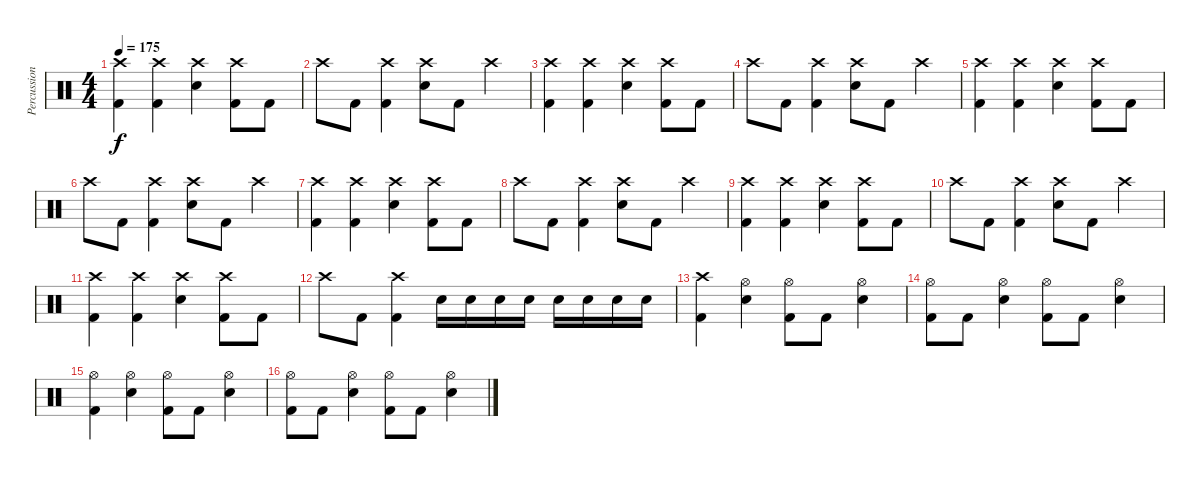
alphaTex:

\track ("Percussion" "Percussion") {instrument percussion}
\staff {score}
\articulation defaults
\ts (4 4)
\tempo 175
\clef neutral
\ks c
("Crash high (hit)" "Kick (hit) 2").4{dy f} ("Crash high (hit)" "Kick (hit) 2").4 ("Crash high (hit)" "Snare (hit) 2").4 ("Crash high (hit)" "Kick (hit) 2").8 "Kick (hit) 2".8 |
"Crash high (hit)".8 "Kick (hit) 2".8 ("Crash high (hit)" "Kick (hit) 2").4 ("Crash high (hit)" "Snare (hit) 2").8 "Kick (hit) 2".8 "Crash high (hit)".4 |
("Crash high (hit)" "Kick (hit) 2").4 ("Crash high (hit)" "Kick (hit) 2").4 ("Crash high (hit)" "Snare (hit) 2").4 ("Crash high (hit)" "Kick (hit) 2").8 "Kick (hit) 2".8 |
"Crash high (hit)".8 "Kick (hit) 2".8 ("Crash high (hit)" "Kick (hit) 2").4 ("Crash high (hit)" "Snare (hit) 2").8 "Kick (hit) 2".8 "Crash high (hit)".4 |
("Crash high (hit)" "Kick (hit) 2").4 ("Crash high (hit)" "Kick (hit) 2").4 ("Crash high (hit)" "Snare (hit) 2").4 ("Crash high (hit)" "Kick (hit) 2").8 "Kick (hit) 2".8 |
"Crash high (hit)".8 "Kick (hit) 2".8 ("Crash high (hit)" "Kick (hit) 2").4 ("Crash high (hit)" "Snare (hit) 2").8 "Kick (hit) 2".8 "Crash high (hit)".4 |
("Crash high (hit)" "Kick (hit) 2").4 ("Crash high (hit)" "Kick (hit) 2").4 ("Crash high (hit)" "Snare (hit) 2").4 ("Crash high (hit)" "Kick (hit) 2").8 "Kick (hit) 2".8 |
"Crash high (hit)".8 "Kick (hit) 2".8 ("Crash high (hit)" "Kick (hit) 2").4 ("Crash high (hit)" "Snare (hit) 2").8 "Kick (hit) 2".8 "Crash high (hit)".4 |
("Crash high (hit)" "Kick (hit) 2").4 ("Crash high (hit)" "Kick (hit) 2").4 ("Crash high (hit)" "Snare (hit) 2").4 ("Crash high (hit)" "Kick (hit) 2").8 "Kick (hit) 2".8 |
"Crash high (hit)".8 "Kick (hit) 2".8 ("Crash high (hit)" "Kick (hit) 2").4 ("Crash high (hit)" "Snare (hit) 2").8 "Kick (hit) 2".8 "Crash high (hit)".4 |
("Crash high (hit)" "Kick (hit) 2").4 ("Crash high (hit)" "Kick (hit) 2").4 ("Crash high (hit)" "Snare (hit) 2").4 ("Crash high (hit)" "Kick (hit) 2").8 "Kick (hit) 2".8 |
"Crash high (hit)".8 "Kick (hit) 2".8 ("Crash high (hit)" "Kick (hit) 2").4 "Snare (hit) 2".16 "Snare (hit) 2".16 "Snare (hit) 2".16 "Snare (hit) 2".16 "Snare (hit) 2".16 "Snare (hit) 2".16 "Snare (hit) 2".16 "Snare (hit) 2".16 |
("Crash high (hit)" "Kick (hit) 2").4 ("Hi-Hat (open)" "Electric Snare (hit)").4 ("Hi-Hat (open)" "Kick (hit) 2").8 "Kick (hit) 2".8 ("Hi-Hat (open)" "Electric Snare (hit)").4 |
("Hi-Hat (open)" "Kick (hit) 2").8 "Kick (hit) 2".8 ("Hi-Hat (open)" "Electric Snare (hit)").4 ("Hi-Hat (open)" "Kick (hit) 2").8 "Kick (hit) 2".8 ("Hi-Hat (open)" "Electric Snare (hit)").4 |
("Hi-Hat (open)" "Kick (hit) 2").4 ("Hi-Hat (open)" "Electric Snare (hit)").4 ("Hi-Hat (open)" "Kick (hit) 2").8 "Kick (hit) 2".8 ("Hi-Hat (open)" "Electric Snare (hit)").4 |
("Hi-Hat (open)" "Kick (hit) 2").8 "Kick (hit) 2".8 ("Hi-Hat (open)" "Electric Snare (hit)").4 ("Hi-Hat (open)" "Kick (hit) 2").8 "Kick (hit) 2".8 ("Hi-Hat (open)" "Electric Snare (hit)").4
